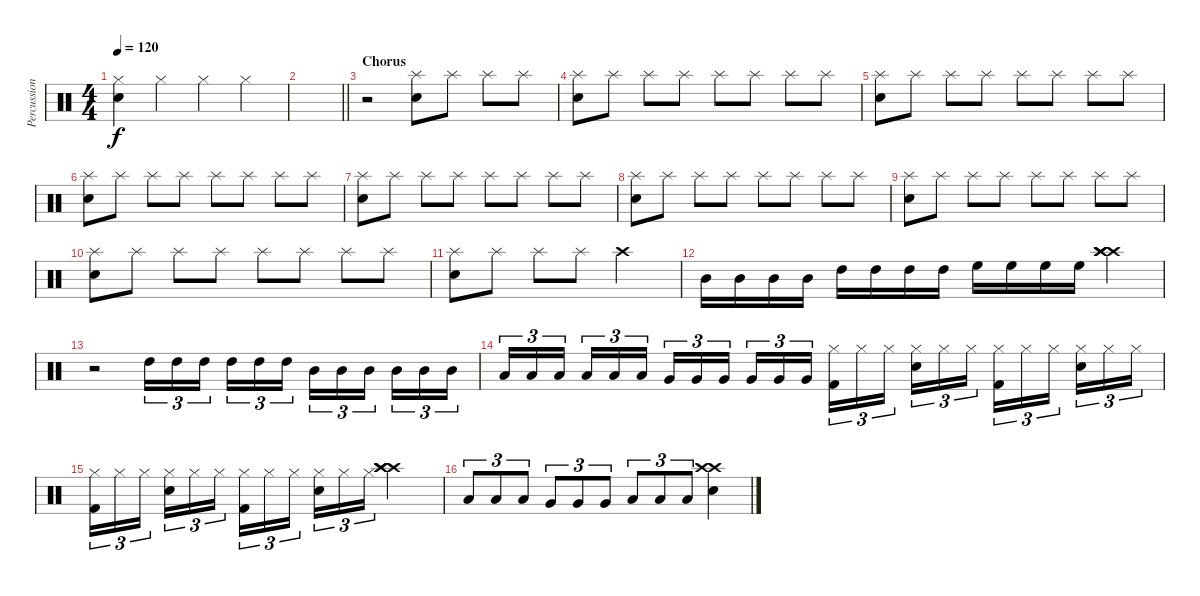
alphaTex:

\track ("Percussion" "Percussion") {instrument percussion}
\staff {score}
\articulation defaults
\ts (4 4)
\tempo 120
\clef neutral
\ks c
("Hi-Hat (closed)" "Snare (hit) 2").4{dy f} "Hi-Hat (closed)".4 "Hi-Hat (closed)".4 "Hi-Hat (closed)".4 |
\barLineRight lightlight
|
\section ("" "Chorus")
r.2 ("Splash (hit)" "Snare (hit) 2").8 "Splash (hit)".8 "Splash (hit)".8 "Splash (hit)".8 |
("Splash (hit)" "Snare (hit) 2").8 "Splash (hit)".8 "Splash (hit)".8 "Splash (hit)".8 "Splash (hit)".8 "Splash (hit)".8 "Splash (hit)".8 "Splash (hit)".8 |
("Splash (hit)" "Snare (hit) 2").8 "Splash (hit)".8 "Splash (hit)".8 "Splash (hit)".8 "Splash (hit)".8 "Splash (hit)".8 "Splash (hit)".8 "Splash (hit)".8 |
("Splash (hit)" "Snare (hit) 2").8 "Splash (hit)".8 "Splash (hit)".8 "Splash (hit)".8 "Splash (hit)".8 "Splash (hit)".8 "Splash (hit)".8 "Splash (hit)".8 |
("Splash (hit)" "Snare (hit) 2").8 "Splash (hit)".8 "Splash (hit)".8 "Splash (hit)".8 "Splash (hit)".8 "Splash (hit)".8 "Splash (hit)".8 "Splash (hit)".8 |
("Splash (hit)" "Snare (hit) 2").8 "Splash (hit)".8 "Splash (hit)".8 "Splash (hit)".8 "Splash (hit)".8 "Splash (hit)".8 "Splash (hit)".8 "Splash (hit)".8 |
("Splash (hit)" "Snare (hit) 2").8 "Splash (hit)".8 "Splash (hit)".8 "Splash (hit)".8 "Splash (hit)".8 "Splash (hit)".8 "Splash (hit)".8 "Splash (hit)".8 |
("Splash (hit)" "Snare (hit) 2").8 "Splash (hit)".8 "Splash (hit)".8 "Splash (hit)".8 "Splash (hit)".8 "Splash (hit)".8 "Splash (hit)".8 "Splash (hit)".8 |
("Splash (hit)" "Snare (hit) 2").8 "Splash (hit)".8 "Splash (hit)".8 "Splash (hit)".8 "Crash high (hit)".2 |
"Mid Tom (hit)".16 "Mid Tom (hit)".16 "Mid Tom (hit)".16 "Mid Tom (hit)".16 "High Tom (hit)".16 "High Tom (hit)".16 "High Tom (hit)".16 "High Tom (hit)".16 "High Floor Tom (hit)".16 "High Floor Tom (hit)".16 "High Floor Tom (hit)".16 "High Floor Tom (hit)".16 ("Crash high (hit)" "Crash high (hit)" "Crash high (hit)").4 |
r.2 "High Tom (hit)".16{tu (3 2)} "High Tom (hit)".16{tu (3 2)} "High Tom (hit)".16{tu (3 2)} "High Tom (hit)".16{tu (3 2)} "High Tom (hit)".16{tu (3 2)} "High Tom (hit)".16{tu (3 2)} "Mid Tom (hit)".16{tu (3 2)} "Mid Tom (hit)".16{tu (3 2)} "Mid Tom (hit)".16{tu (3 2)} "Mid Tom (hit)".16{tu (3 2)} "Mid Tom (hit)".16{tu (3 2)} "Mid Tom (hit)".16{tu (3 2)} |
"Low Tom (hit)".16{tu (3 2)} "Low Tom (hit)".16{tu (3 2)} "Low Tom (hit)".16{tu (3 2)} "Low Tom (hit)".16{tu (3 2)} "Low Tom (hit)".16{tu (3 2)} "Low Tom (hit)".16{tu (3 2)} "Very Low Tom (hit)".16{tu (3 2)} "Very Low Tom (hit)".16{tu (3 2)} "Very Low Tom (hit)".16{tu (3 2)} "Very Low Tom (hit)".16{tu (3 2)} "Very Low Tom (hit)".16{tu (3 2)} "Very Low Tom (hit)".16{tu (3 2)} ("Hi-Hat (closed)" "Kick (hit) 2").16{tu (3 2)} "Hi-Hat (closed)".16{tu (3 2)} "Hi-Hat (closed)".16{tu (3 2)} ("Hi-Hat (closed)" "Snare (hit) 2").16{tu (3 2)} "Hi-Hat (closed)".16{tu (3 2)} "Hi-Hat (closed)".16{tu (3 2)} ("Hi-Hat (closed)" "Kick (hit) 2").16{tu (3 2)} "Hi-Hat (closed)".16{tu (3 2)} "Hi-Hat (closed)".16{tu (3 2)} ("Hi-Hat (closed)" "Snare (hit) 2").16{tu (3 2)} "Hi-Hat (closed)".16{tu (3 2)} "Hi-Hat (closed)".16{tu (3 2)} |
("Hi-Hat (closed)" "Kick (hit) 2").16{tu (3 2)} "Hi-Hat (closed)".16{tu (3 2)} "Hi-Hat (closed)".16{tu (3 2)} ("Hi-Hat (closed)" "Snare (hit) 2").16{tu (3 2)} "Hi-Hat (closed)".16{tu (3 2)} "Hi-Hat (closed)".16{tu (3 2)} ("Hi-Hat (closed)" "Kick (hit) 2").16{tu (3 2)} "Hi-Hat (closed)".16{tu (3 2)} "Hi-Hat (closed)".16{tu (3 2)} ("Hi-Hat (closed)" "Snare (hit) 2").16{tu (3 2)} "Hi-Hat (closed)".16{tu (3 2)} "Hi-Hat (closed)".16{tu (3 2)} ("Crash high (hit)" "Crash high (hit)" "Crash high (hit)").2 |
"Low Tom (hit)".8{tu (3 2)} "Low Tom (hit)".8{tu (3 2)} "Low Tom (hit)".8{tu (3 2)} "Very Low Tom (hit)".8{tu (3 2)} "Very Low Tom (hit)".8{tu (3 2)} "Very Low Tom (hit)".8{tu (3 2)} "Low Floor Tom (hit)".8{tu (3 2)} "Low Floor Tom (hit)".8{tu (3 2)} "Low Floor Tom (hit)".8{tu (3 2)} ("Snare (hit) 2" "Crash high (hit)" "Crash high (hit)").4
